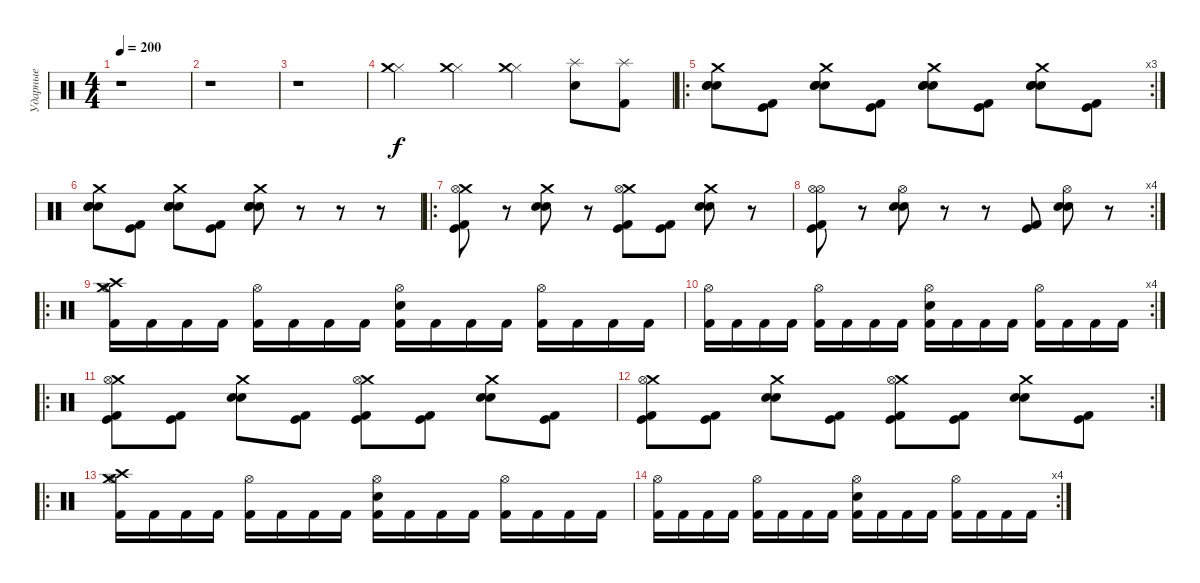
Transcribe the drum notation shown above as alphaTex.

\track ("Ударные" "Ударные") {instrument percussion}
\staff {score}
\articulation defaults
\ts (4 4)
\tempo 200
\clef neutral
\ks c
r.1{dy f} |
r.1 |
r.1 |
("Hi-Hat (closed)" "Crash medium (hit)").4 ("Hi-Hat (closed)" "Crash medium (hit)").4 ("Hi-Hat (closed)" "Crash medium (hit)").4 ("Splash (hit)" "Snare (hit) 2").8 ("Splash (hit)" "Kick (hit) 2").8 |
\ro
\rc 3
("Crash medium (hit)" "Electric Snare (hit)" "Electric Snare (hit)" "Snare (hit) 2").8 ("Kick (hit) 2" "Kick (hit)").8 ("Crash medium (hit)" "Electric Snare (hit)" "Electric Snare (hit)" "Snare (hit) 2").8 ("Kick (hit) 2" "Kick (hit)").8 ("Crash medium (hit)" "Electric Snare (hit)" "Electric Snare (hit)" "Snare (hit) 2").8 ("Kick (hit) 2" "Kick (hit)").8 ("Crash medium (hit)" "Electric Snare (hit)" "Electric Snare (hit)" "Snare (hit) 2").8 ("Kick (hit) 2" "Kick (hit)").8 |
("Crash medium (hit)" "Electric Snare (hit)" "Electric Snare (hit)" "Snare (hit) 2").8 ("Kick (hit) 2" "Kick (hit)").8 ("Crash medium (hit)" "Electric Snare (hit)" "Electric Snare (hit)" "Snare (hit) 2").8 ("Kick (hit) 2" "Kick (hit)").8 ("Crash medium (hit)" "Electric Snare (hit)" "Electric Snare (hit)" "Snare (hit) 2").8 r.8 r.8 r.8 |
\ro
("Crash medium (hit)" "Hi-Hat (open)" "Kick (hit)" "Kick (hit) 2").8 r.8 ("Crash medium (hit)" "Electric Snare (hit)" "Electric Snare (hit)").8 r.8 ("Crash medium (hit)" "Hi-Hat (open)" "Kick (hit)" "Kick (hit) 2").8 ("Kick (hit) 2" "Kick (hit)").8 ("Crash medium (hit)" "Electric Snare (hit)" "Electric Snare (hit)").8 r.8 |
\rc 4
("Hi-Hat (open)" "Hi-Hat (open)" "Kick (hit)" "Kick (hit) 2").8 r.8 ("Hi-Hat (open)" "Electric Snare (hit)" "Electric Snare (hit)").8 r.8 r.8 ("Kick (hit) 2" "Kick (hit)").8 ("Hi-Hat (open)" "Electric Snare (hit)" "Electric Snare (hit)").8 r.8 |
\ro
("Crash medium (hit)" "Crash high (hit)" "Hi-Hat (open)" "Kick (hit) 2").16 "Kick (hit) 2".16 "Kick (hit) 2".16 "Kick (hit) 2".16 ("Hi-Hat (open)" "Kick (hit) 2").16 "Kick (hit) 2".16 "Kick (hit) 2".16 "Kick (hit) 2".16 ("Hi-Hat (open)" "Electric Snare (hit)" "Kick (hit) 2").16 "Kick (hit) 2".16 "Kick (hit) 2".16 "Kick (hit) 2".16 ("Hi-Hat (open)" "Kick (hit) 2").16 "Kick (hit) 2".16 "Kick (hit) 2".16 "Kick (hit) 2".16 |
\rc 4
("Hi-Hat (open)" "Kick (hit) 2").16 "Kick (hit) 2".16 "Kick (hit) 2".16 "Kick (hit) 2".16 ("Hi-Hat (open)" "Kick (hit) 2").16 "Kick (hit) 2".16 "Kick (hit) 2".16 "Kick (hit) 2".16 ("Hi-Hat (open)" "Electric Snare (hit)" "Kick (hit) 2").16 "Kick (hit) 2".16 "Kick (hit) 2".16 "Kick (hit) 2".16 ("Hi-Hat (open)" "Kick (hit) 2").16 "Kick (hit) 2".16 "Kick (hit) 2".16 "Kick (hit) 2".16 |
\ro
("Crash medium (hit)" "Hi-Hat (open)" "Kick (hit)" "Kick (hit) 2").8 ("Kick (hit) 2" "Kick (hit)").8 ("Crash medium (hit)" "Electric Snare (hit)" "Electric Snare (hit)").8 ("Kick (hit) 2" "Kick (hit)").8 ("Crash medium (hit)" "Hi-Hat (open)" "Kick (hit)" "Kick (hit) 2").8 ("Kick (hit) 2" "Kick (hit)").8 ("Crash medium (hit)" "Electric Snare (hit)" "Electric Snare (hit)").8 ("Kick (hit) 2" "Kick (hit)").8 |
\rc 2
("Crash medium (hit)" "Hi-Hat (open)" "Kick (hit)" "Kick (hit) 2").8 ("Kick (hit) 2" "Kick (hit)").8 ("Crash medium (hit)" "Electric Snare (hit)" "Electric Snare (hit)").8 ("Kick (hit) 2" "Kick (hit)").8 ("Crash medium (hit)" "Hi-Hat (open)" "Kick (hit)" "Kick (hit) 2").8 ("Kick (hit) 2" "Kick (hit)").8 ("Crash medium (hit)" "Electric Snare (hit)" "Electric Snare (hit)").8 ("Kick (hit) 2" "Kick (hit)").8 |
\ro
("Crash medium (hit)" "Crash high (hit)" "Hi-Hat (open)" "Kick (hit) 2").16 "Kick (hit) 2".16 "Kick (hit) 2".16 "Kick (hit) 2".16 ("Hi-Hat (open)" "Kick (hit) 2").16 "Kick (hit) 2".16 "Kick (hit) 2".16 "Kick (hit) 2".16 ("Hi-Hat (open)" "Electric Snare (hit)" "Kick (hit) 2").16 "Kick (hit) 2".16 "Kick (hit) 2".16 "Kick (hit) 2".16 ("Hi-Hat (open)" "Kick (hit) 2").16 "Kick (hit) 2".16 "Kick (hit) 2".16 "Kick (hit) 2".16 |
\rc 4
("Hi-Hat (open)" "Kick (hit) 2").16 "Kick (hit) 2".16 "Kick (hit) 2".16 "Kick (hit) 2".16 ("Hi-Hat (open)" "Kick (hit) 2").16 "Kick (hit) 2".16 "Kick (hit) 2".16 "Kick (hit) 2".16 ("Hi-Hat (open)" "Electric Snare (hit)" "Kick (hit) 2").16 "Kick (hit) 2".16 "Kick (hit) 2".16 "Kick (hit) 2".16 ("Hi-Hat (open)" "Kick (hit) 2").16 "Kick (hit) 2".16 "Kick (hit) 2".16 "Kick (hit) 2".16
